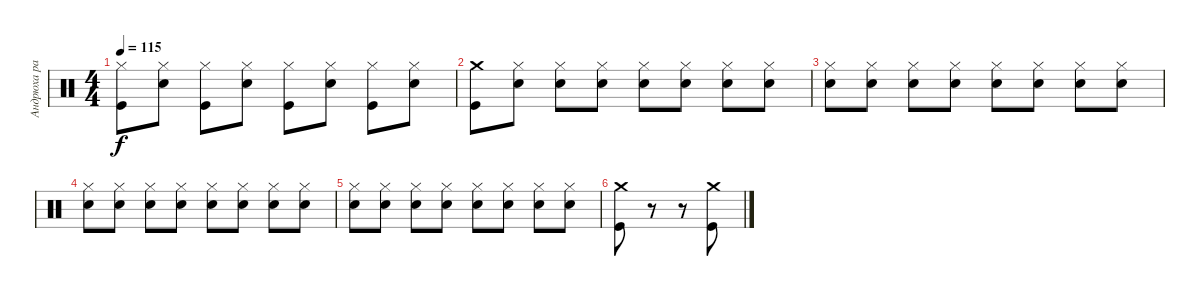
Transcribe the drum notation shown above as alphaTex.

\track ("Андрюха радостный" "Андрюха ра") {instrument percussion}
\staff {score}
\articulation defaults
\ts (4 4)
\tempo 115
\clef neutral
\ks c
("Hi-Hat (closed)" "Kick (hit)").8{dy f} ("Hi-Hat (closed)" "Electric Snare (hit)").8 ("Hi-Hat (closed)" "Kick (hit)").8 ("Hi-Hat (closed)" "Electric Snare (hit)").8 ("Hi-Hat (closed)" "Kick (hit)").8 ("Hi-Hat (closed)" "Electric Snare (hit)").8 ("Hi-Hat (closed)" "Kick (hit)").8 ("Hi-Hat (closed)" "Electric Snare (hit)").8 |
("Crash medium (hit)" "Kick (hit)").8 ("Hi-Hat (closed)" "Electric Snare (hit)").8 ("Hi-Hat (closed)" "Electric Snare (hit)").8 ("Hi-Hat (closed)" "Electric Snare (hit)").8 ("Hi-Hat (closed)" "Electric Snare (hit)").8 ("Hi-Hat (closed)" "Electric Snare (hit)").8 ("Hi-Hat (closed)" "Electric Snare (hit)").8 ("Hi-Hat (closed)" "Electric Snare (hit)").8 |
("Hi-Hat (closed)" "Electric Snare (hit)").8 ("Hi-Hat (closed)" "Electric Snare (hit)").8 ("Hi-Hat (closed)" "Electric Snare (hit)").8 ("Hi-Hat (closed)" "Electric Snare (hit)").8 ("Hi-Hat (closed)" "Electric Snare (hit)").8 ("Hi-Hat (closed)" "Electric Snare (hit)").8 ("Hi-Hat (closed)" "Electric Snare (hit)").8 ("Hi-Hat (closed)" "Electric Snare (hit)").8 |
("Hi-Hat (closed)" "Electric Snare (hit)").8 ("Hi-Hat (closed)" "Electric Snare (hit)").8 ("Hi-Hat (closed)" "Electric Snare (hit)").8 ("Hi-Hat (closed)" "Electric Snare (hit)").8 ("Hi-Hat (closed)" "Electric Snare (hit)").8 ("Hi-Hat (closed)" "Electric Snare (hit)").8 ("Hi-Hat (closed)" "Electric Snare (hit)").8 ("Hi-Hat (closed)" "Electric Snare (hit)").8 |
("Hi-Hat (closed)" "Electric Snare (hit)").8 ("Hi-Hat (closed)" "Electric Snare (hit)").8 ("Hi-Hat (closed)" "Electric Snare (hit)").8 ("Hi-Hat (closed)" "Electric Snare (hit)").8 ("Hi-Hat (closed)" "Electric Snare (hit)").8 ("Hi-Hat (closed)" "Electric Snare (hit)").8 ("Hi-Hat (closed)" "Electric Snare (hit)").8 ("Hi-Hat (closed)" "Electric Snare (hit)").8 |
("Crash medium (hit)" "Kick (hit)").8 r.8 r.8 ("Crash medium (hit)" "Kick (hit)").8
